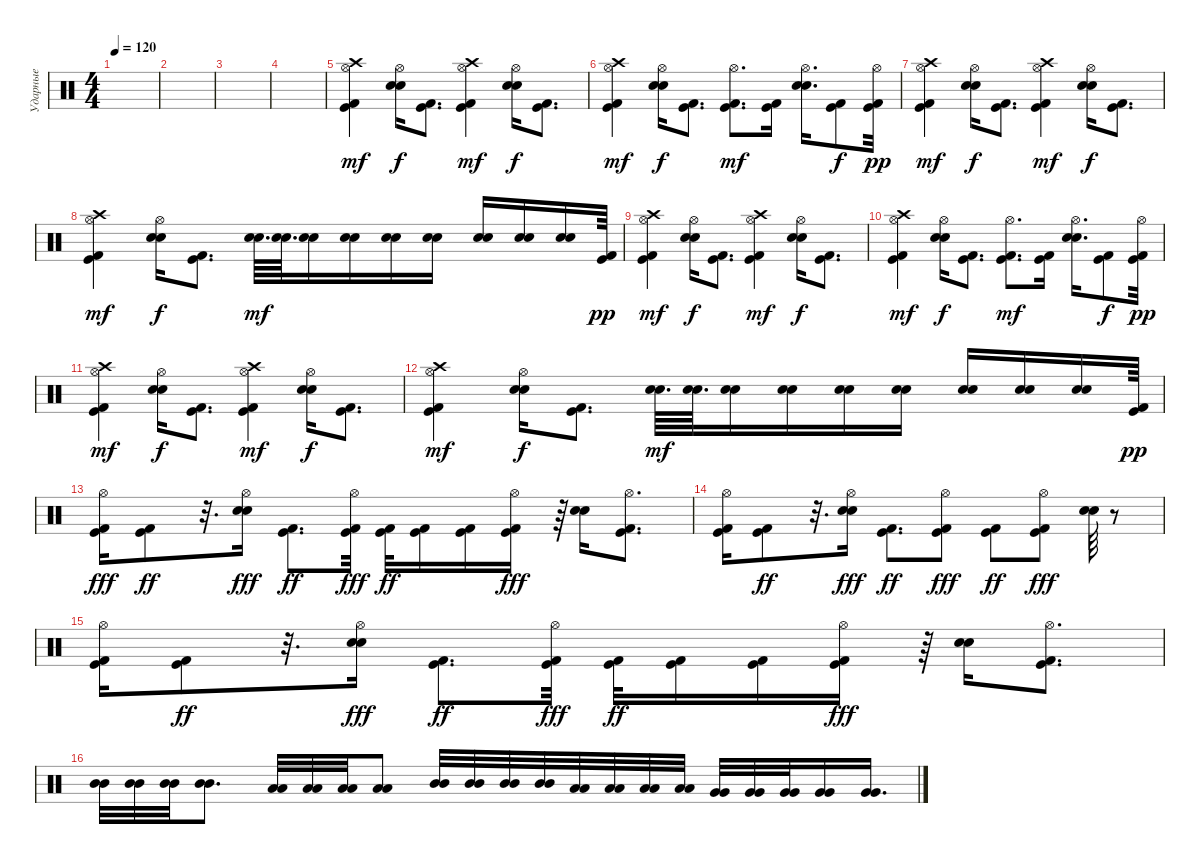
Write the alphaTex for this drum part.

\track ("Ударные" "Ударные") {instrument percussion}
\staff {score}
\articulation defaults
\ts (4 4)
\tempo 120
\clef neutral
\ks c
|
|
|
|
("Kick (hit) 2" "Kick (hit)" "Hi-Hat (open)" "Crash high (hit)").4{dy mf} ("Snare (hit) 2" "Electric Snare (hit)" "Hi-Hat (open)").16{dy f} ("Kick (hit) 2" "Kick (hit)").8{d} ("Kick (hit) 2" "Kick (hit)" "Hi-Hat (open)" "Crash high (hit)").4{dy mf} ("Snare (hit) 2" "Electric Snare (hit)" "Hi-Hat (open)").16{dy f} ("Kick (hit) 2" "Kick (hit)").8{d} |
("Kick (hit) 2" "Kick (hit)" "Hi-Hat (open)" "Crash high (hit)").4{dy mf} ("Snare (hit) 2" "Electric Snare (hit)" "Hi-Hat (open)").16{dy f} ("Kick (hit) 2" "Kick (hit)").8{d} ("Kick (hit) 2" "Kick (hit)" "Hi-Hat (open)").8{d dy mf} ("Kick (hit) 2" "Kick (hit)").16 ("Snare (hit) 2" "Electric Snare (hit)" "Hi-Hat (open)").16{d} ("Kick (hit) 2" "Kick (hit)").8{dy f} ("Kick (hit) 2" "Kick (hit)" "Hi-Hat (open)").32{dy pp} |
("Kick (hit) 2" "Kick (hit)" "Hi-Hat (open)" "Crash high (hit)").4{dy mf} ("Snare (hit) 2" "Electric Snare (hit)" "Hi-Hat (open)").16{dy f} ("Kick (hit) 2" "Kick (hit)").8{d} ("Kick (hit) 2" "Kick (hit)" "Hi-Hat (open)" "Crash high (hit)").4{dy mf} ("Snare (hit) 2" "Electric Snare (hit)" "Hi-Hat (open)").16{dy f} ("Kick (hit) 2" "Kick (hit)").8{d} |
("Kick (hit) 2" "Kick (hit)" "Hi-Hat (open)" "Crash high (hit)").4{dy mf} ("Snare (hit) 2" "Electric Snare (hit)" "Hi-Hat (open)").16{dy f} ("Kick (hit) 2" "Kick (hit)").8{d} ("Snare (hit) 2" "Electric Snare (hit)").64{d dy mf} ("Snare (hit) 2" "Electric Snare (hit)").64{d} ("Snare (hit) 2" "Electric Snare (hit)").16 ("Snare (hit) 2" "Electric Snare (hit)").16 ("Snare (hit) 2" "Electric Snare (hit)").16 ("Snare (hit) 2" "Electric Snare (hit)").16 ("Snare (hit) 2" "Electric Snare (hit)").16 ("Snare (hit) 2" "Electric Snare (hit)").16 ("Snare (hit) 2" "Electric Snare (hit)").16 ("Kick (hit) 2" "Kick (hit)").64{dy pp} |
("Kick (hit) 2" "Kick (hit)" "Hi-Hat (open)" "Crash high (hit)").4{dy mf} ("Snare (hit) 2" "Electric Snare (hit)" "Hi-Hat (open)").16{dy f} ("Kick (hit) 2" "Kick (hit)").8{d} ("Kick (hit) 2" "Kick (hit)" "Hi-Hat (open)" "Crash high (hit)").4{dy mf} ("Snare (hit) 2" "Electric Snare (hit)" "Hi-Hat (open)").16{dy f} ("Kick (hit) 2" "Kick (hit)").8{d} |
("Kick (hit) 2" "Kick (hit)" "Hi-Hat (open)" "Crash high (hit)").4{dy mf} ("Snare (hit) 2" "Electric Snare (hit)" "Hi-Hat (open)").16{dy f} ("Kick (hit) 2" "Kick (hit)").8{d} ("Kick (hit) 2" "Kick (hit)" "Hi-Hat (open)").8{d dy mf} ("Kick (hit) 2" "Kick (hit)").16 ("Snare (hit) 2" "Electric Snare (hit)" "Hi-Hat (open)").16{d} ("Kick (hit) 2" "Kick (hit)").8{dy f} ("Kick (hit) 2" "Kick (hit)" "Hi-Hat (open)").32{dy pp} |
("Kick (hit) 2" "Kick (hit)" "Hi-Hat (open)" "Crash high (hit)").4{dy mf} ("Snare (hit) 2" "Electric Snare (hit)" "Hi-Hat (open)").16{dy f} ("Kick (hit) 2" "Kick (hit)").8{d} ("Kick (hit) 2" "Kick (hit)" "Hi-Hat (open)" "Crash high (hit)").4{dy mf} ("Snare (hit) 2" "Electric Snare (hit)" "Hi-Hat (open)").16{dy f} ("Kick (hit) 2" "Kick (hit)").8{d} |
("Kick (hit) 2" "Kick (hit)" "Hi-Hat (open)" "Crash high (hit)").4{dy mf} ("Snare (hit) 2" "Electric Snare (hit)" "Hi-Hat (open)").16{dy f} ("Kick (hit) 2" "Kick (hit)").8{d} ("Snare (hit) 2" "Electric Snare (hit)").64{d dy mf} ("Snare (hit) 2" "Electric Snare (hit)").64{d} ("Snare (hit) 2" "Electric Snare (hit)").16 ("Snare (hit) 2" "Electric Snare (hit)").16 ("Snare (hit) 2" "Electric Snare (hit)").16 ("Snare (hit) 2" "Electric Snare (hit)").16 ("Snare (hit) 2" "Electric Snare (hit)").16 ("Snare (hit) 2" "Electric Snare (hit)").16 ("Snare (hit) 2" "Electric Snare (hit)").16 ("Kick (hit) 2" "Kick (hit)").64{dy pp} |
("Kick (hit) 2" "Kick (hit)" "Hi-Hat (open)").16{dy fff} ("Kick (hit) 2" "Kick (hit)").8{dy ff} r.32{d} ("Electric Snare (hit)" "Snare (hit) 2" "Hi-Hat (open)").16{dy fff} ("Kick (hit) 2" "Kick (hit)").8{d dy ff} ("Kick (hit) 2" "Kick (hit)" "Hi-Hat (open)").32{dy fff} ("Kick (hit) 2" "Kick (hit)").32{dy ff} ("Kick (hit) 2" "Kick (hit)").16 ("Kick (hit) 2" "Kick (hit)").16 ("Kick (hit) 2" "Kick (hit)" "Hi-Hat (open)").16{dy fff} r.64 ("Snare (hit) 2" "Electric Snare (hit)").16 ("Kick (hit) 2" "Kick (hit)" "Hi-Hat (open)").8{d} |
("Kick (hit) 2" "Kick (hit)" "Hi-Hat (open)").16 ("Kick (hit) 2" "Kick (hit)").8{dy ff} r.32{d} ("Electric Snare (hit)" "Snare (hit) 2" "Hi-Hat (open)").16{dy fff} ("Kick (hit) 2" "Kick (hit)").8{d dy ff} ("Kick (hit) 2" "Kick (hit)" "Hi-Hat (open)").8{dy fff} ("Kick (hit) 2" "Kick (hit)").8{dy ff} ("Kick (hit)" "Kick (hit) 2" "Hi-Hat (open)").8{dy fff} ("Electric Snare (hit)" "Snare (hit) 2").64 r.8 |
("Kick (hit) 2" "Kick (hit)" "Hi-Hat (open)").16 ("Kick (hit) 2" "Kick (hit)").8{dy ff} r.32{d} ("Electric Snare (hit)" "Snare (hit) 2" "Hi-Hat (open)").16{dy fff} ("Kick (hit) 2" "Kick (hit)").8{d dy ff} ("Kick (hit) 2" "Kick (hit)" "Hi-Hat (open)").32{dy fff} ("Kick (hit) 2" "Kick (hit)").32{dy ff} ("Kick (hit) 2" "Kick (hit)").16 ("Kick (hit) 2" "Kick (hit)").16 ("Kick (hit) 2" "Kick (hit)" "Hi-Hat (open)").16{dy fff} r.64 ("Snare (hit) 2" "Electric Snare (hit)").16 ("Kick (hit) 2" "Kick (hit)" "Hi-Hat (open)").8{d} |
("Mid Tom (hit)" "Mid Tom (hit)").32 ("Mid Tom (hit)" "Mid Tom (hit)").32 ("Mid Tom (hit)" "Mid Tom (hit)").32 ("Mid Tom (hit)" "Mid Tom (hit)").8{d} ("Low Tom (hit)" "Low Tom (hit)").32 ("Low Tom (hit)" "Low Tom (hit)").32 ("Low Tom (hit)" "Low Tom (hit)").32 ("Low Tom (hit)" "Low Tom (hit)").8 ("Mid Tom (hit)" "Mid Tom (hit)").32 ("Mid Tom (hit)" "Mid Tom (hit)").32 ("Mid Tom (hit)" "Mid Tom (hit)").32 ("Mid Tom (hit)" "Mid Tom (hit)").32 ("Low Tom (hit)" "Low Tom (hit)").32 ("Low Tom (hit)" "Low Tom (hit)").32 ("Low Tom (hit)" "Low Tom (hit)").32 ("Low Tom (hit)" "Low Tom (hit)").32 ("Very Low Tom (hit)" "Very Low Tom (hit)").32 ("Very Low Tom (hit)" "Very Low Tom (hit)").32 ("Very Low Tom (hit)" "Very Low Tom (hit)").32 ("Very Low Tom (hit)" "Very Low Tom (hit)").16 ("Very Low Tom (hit)" "Very Low Tom (hit)").16{d}
